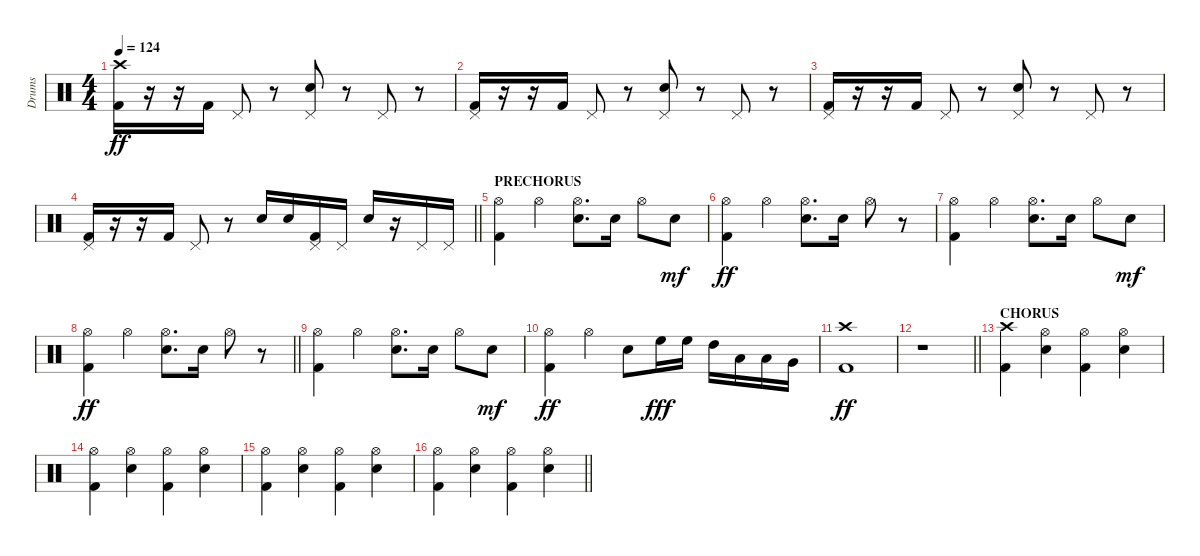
\track ("Drums" "Drums") {instrument percussion}
\staff {score}
\articulation defaults
\ts (4 4)
\section ("" "")
\tempo 124
\clef neutral
\ks c
("Crash high (hit)" "Kick (hit) 2").16{dy ff} r.16 r.16 "Kick (hit) 2".16 "Pedal Hi-Hat (hit)".8 r.8 ("Pedal Hi-Hat (hit)" "Electric Snare (hit)").8 r.8 "Pedal Hi-Hat (hit)".8 r.8 |
("Pedal Hi-Hat (hit)" "Kick (hit) 2").16 r.16 r.16 "Kick (hit) 2".16 "Pedal Hi-Hat (hit)".8 r.8 ("Pedal Hi-Hat (hit)" "Electric Snare (hit)").8 r.8 "Pedal Hi-Hat (hit)".8 r.8 |
("Pedal Hi-Hat (hit)" "Kick (hit) 2").16 r.16 r.16 "Kick (hit) 2".16 "Pedal Hi-Hat (hit)".8 r.8 ("Pedal Hi-Hat (hit)" "Electric Snare (hit)").8 r.8 "Pedal Hi-Hat (hit)".8 r.8 |
\barLineRight lightlight
("Pedal Hi-Hat (hit)" "Kick (hit) 2").16 r.16 r.16 "Kick (hit) 2".16 "Pedal Hi-Hat (hit)".8 r.8 "Electric Snare (hit)".16 "Electric Snare (hit)".16 ("Pedal Hi-Hat (hit)" "Kick (hit) 2").16 "Pedal Hi-Hat (hit)".16 "Electric Snare (hit)".16 r.16 "Pedal Hi-Hat (hit)".16 "Pedal Hi-Hat (hit)".16 |
\section ("" "PRECHORUS")
("Hi-Hat (open)" "Kick (hit) 2").4 "Hi-Hat (open)".4 ("Hi-Hat (open)" "Electric Snare (hit)").8{d} "Electric Snare (hit)".16 "Hi-Hat (open)".8 "Electric Snare (hit)".8{dy mf} |
("Hi-Hat (open)" "Kick (hit) 2").4{dy ff} "Hi-Hat (open)".4 ("Hi-Hat (open)" "Electric Snare (hit)").8{d} "Electric Snare (hit)".16 "Hi-Hat (open)".8 r.8 |
("Hi-Hat (open)" "Kick (hit) 2").4 "Hi-Hat (open)".4 ("Hi-Hat (open)" "Electric Snare (hit)").8{d} "Electric Snare (hit)".16 "Hi-Hat (open)".8 "Electric Snare (hit)".8{dy mf} |
\barLineRight lightlight
("Hi-Hat (open)" "Kick (hit) 2").4{dy ff} "Hi-Hat (open)".4 ("Hi-Hat (open)" "Electric Snare (hit)").8{d} "Electric Snare (hit)".16 "Hi-Hat (open)".8 r.8 |
\section ("" "")
("Hi-Hat (open)" "Kick (hit) 2").4 "Hi-Hat (open)".4 ("Hi-Hat (open)" "Electric Snare (hit)").8{d} "Electric Snare (hit)".16 "Hi-Hat (open)".8 "Electric Snare (hit)".8{dy mf} |
("Hi-Hat (open)" "Kick (hit) 2").4{dy ff} "Hi-Hat (open)".4 "Electric Snare (hit)".8 "High Floor Tom (hit)".16{dy fff} "High Floor Tom (hit)".16 "High Tom (hit)".16 "Low Tom (hit)".16 "Low Tom (hit)".16 "Very Low Tom (hit)".16 |
("Crash high (hit)" "Kick (hit) 2").1{dy ff} |
\barLineRight lightlight
r.1 |
\section ("" "CHORUS")
("Crash high (hit)" "Kick (hit) 2").4 ("Hi-Hat (open)" "Electric Snare (hit)").4 ("Hi-Hat (open)" "Kick (hit) 2").4 ("Hi-Hat (open)" "Electric Snare (hit)").4 |
("Hi-Hat (open)" "Kick (hit) 2").4 ("Hi-Hat (open)" "Electric Snare (hit)").4 ("Hi-Hat (open)" "Kick (hit) 2").4 ("Hi-Hat (open)" "Electric Snare (hit)").4 |
("Hi-Hat (open)" "Kick (hit) 2").4 ("Hi-Hat (open)" "Electric Snare (hit)").4 ("Hi-Hat (open)" "Kick (hit) 2").4 ("Hi-Hat (open)" "Electric Snare (hit)").4 |
\barLineRight lightlight
("Hi-Hat (open)" "Kick (hit) 2").4 ("Hi-Hat (open)" "Electric Snare (hit)").4 ("Hi-Hat (open)" "Kick (hit) 2").4 ("Hi-Hat (open)" "Electric Snare (hit)").4
